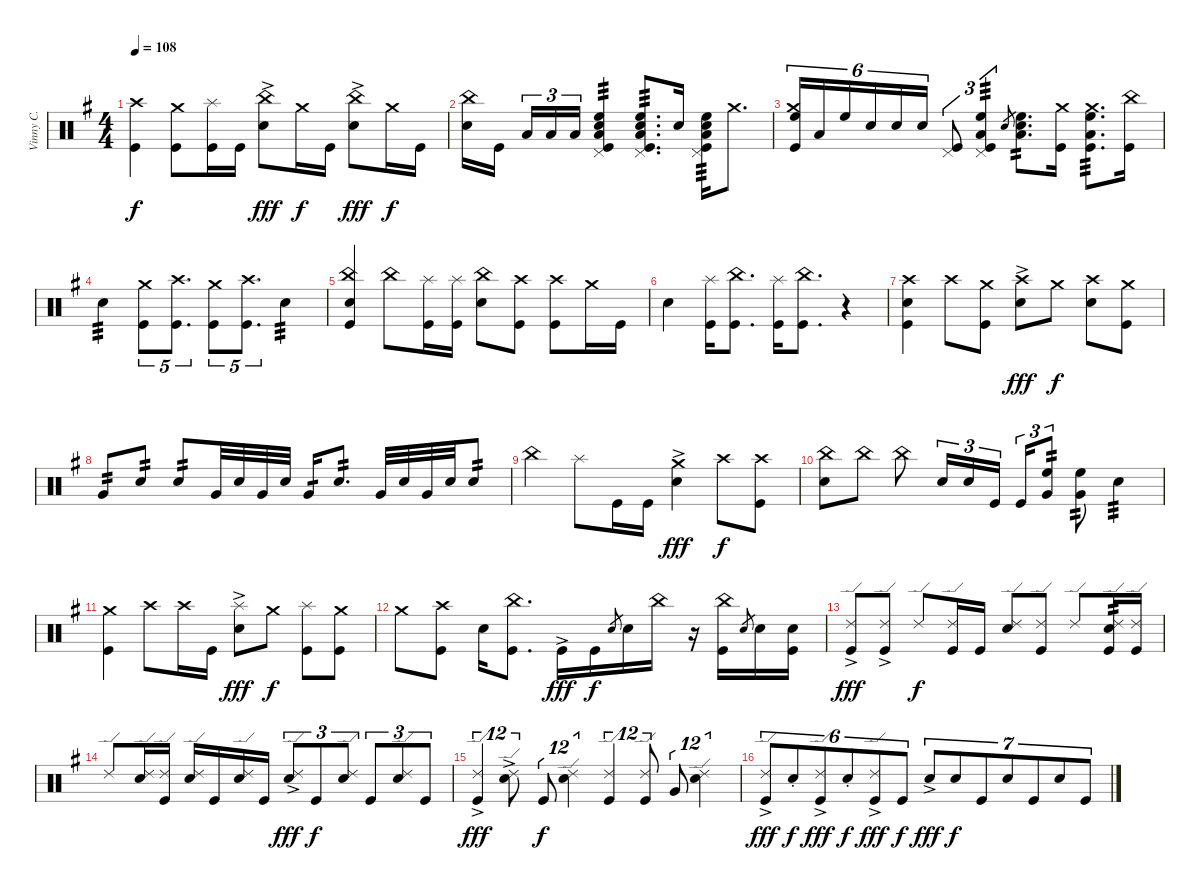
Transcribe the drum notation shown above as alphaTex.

\track ("Vinny C." "Vinny C.") {instrument percussion}
\staff {score}
\articulation defaults
\ts (4 4)
\tempo 108
\clef neutral
\ks g
("Crash high (hit)" "Kick (hit)").4{dy f} ("Crash medium (hit)" "Kick (hit)").8 ("Splash (hit)" "Kick (hit)").16 "Kick (hit)".16 ("China (hit)"{ac} "Electric Snare (hit)").8{dy fff} "Crash medium (hit)".16{dy f} "Kick (hit)".16 ("China (hit)"{ac} "Electric Snare (hit)").8{dy fff} "Crash medium (hit)".16{dy f} "Kick (hit)".16 |
("China (hit)" "Electric Snare (hit)").16 "Kick (hit)".16 "Low Tom (hit)".16{tu (3 2)} "Low Tom (hit)".16{tu (3 2)} "Low Tom (hit)".16{tu (3 2)} ("Pedal Hi-Hat (hit)" "Low Tom (hit)" "High Floor Tom (hit)" "Electric Snare (hit)" "Kick (hit)").4{tp 3} ("Pedal Hi-Hat (hit)" "High Floor Tom (hit)" "Low Tom (hit)" "Electric Snare (hit)" "Kick (hit)").8{d tp 3} "Electric Snare (hit)".16 ("Pedal Hi-Hat (hit)" "High Floor Tom (hit)" "Low Tom (hit)" "Electric Snare (hit)" "Kick (hit)").16{tp 3} "Crash medium (hit)".8{d} |
("Crash medium (hit)" "High Floor Tom (hit)" "Kick (hit)").16{tu (6 4)} "Low Tom (hit)".16{tu (6 4)} "High Floor Tom (hit)".16{tu (6 4)} "Electric Snare (hit)".16{tu (6 4)} "Electric Snare (hit)".16{tu (6 4)} "Electric Snare (hit)".16{tu (6 4)} ("Pedal Hi-Hat (hit)" "Kick (hit)").8{tu (3 2)} ("Pedal Hi-Hat (hit)" "High Floor Tom (hit)" "Low Tom (hit)" "Kick (hit)").4{tu (3 2) tp 3} "Electric Snare (hit)".8{gr} ("High Floor Tom (hit)" "Low Tom (hit)" "Electric Snare (hit)").8{d tp 2} ("Crash medium (hit)" "Kick (hit)").16 ("Crash medium (hit)" "High Floor Tom (hit)" "Low Tom (hit)" "Kick (hit)").8{d tp 3} ("China (hit)" "Kick (hit)").16 |
"Electric Snare (hit)".4{tp 3} ("Crash medium (hit)" "Kick (hit)").8{tu (5 4)} ("Crash high (hit)" "Kick (hit)").8{d tu (5 4)} ("Crash medium (hit)" "Kick (hit)").8{tu (5 4)} ("Crash high (hit)" "Kick (hit)").8{d tu (5 4)} "Electric Snare (hit)".4{tp 3} |
("China (hit)" "Electric Snare (hit)" "Kick (hit)").4 "China (hit)".8 ("Splash (hit)" "Kick (hit)").16 ("Splash (hit)" "Kick (hit)").16 ("China (hit)" "Electric Snare (hit)").8 ("Crash high (hit)" "Kick (hit)").8 ("Crash high (hit)" "Kick (hit)").8 "Crash medium (hit)".16 "Kick (hit)".16 |
"Electric Snare (hit)".4 ("Splash (hit)" "Kick (hit)").16 ("China (hit)" "Kick (hit)").8{d} ("Splash (hit)" "Kick (hit)").16 ("China (hit)" "Kick (hit)").8{d} r.4 |
("Crash high (hit)" "Electric Snare (hit)" "Kick (hit)").4 "Crash high (hit)".8 ("Crash medium (hit)" "Kick (hit)").8 ("Crash high (hit)" "Electric Snare (hit)"{ac}).8{dy fff} "Crash medium (hit)".8{dy f} ("Crash high (hit)" "Electric Snare (hit)").8 ("Crash medium (hit)" "Kick (hit)").8 |
"Very Low Tom (hit)".8{tp 2} "Electric Snare (hit)".8{tp 2} "Electric Snare (hit)".8{tp 2} "Very Low Tom (hit)".32 "Electric Snare (hit)".32 "Very Low Tom (hit)".32 "Electric Snare (hit)".32 "Very Low Tom (hit)".16{tp 1} "Electric Snare (hit)".8{d tp 2} "Very Low Tom (hit)".32 "Electric Snare (hit)".32 "Very Low Tom (hit)".32 "Electric Snare (hit)".32 "Electric Snare (hit)".8{tp 2} |
"China (hit)".4 "Splash (hit)".8 "Kick (hit)".16 "Kick (hit)".16 ("Crash medium (hit)" "Electric Snare (hit)"{ac}).4{dy fff} "Crash high (hit)".8{dy f} ("Crash high (hit)" "Kick (hit)").8 |
("China (hit)" "Electric Snare (hit)").8 "China (hit)".8 "China (hit)".8 "Electric Snare (hit)".16{tu (3 2)} "Electric Snare (hit)".16{tu (3 2)} "Kick (hit)".16{tu (3 2)} "Kick (hit)".16{tu (3 2)} ("High Floor Tom (hit)" "Very Low Tom (hit)").8{tu (3 2) tp 2} ("High Floor Tom (hit)" "Very Low Tom (hit)").8{tp 2} "Electric Snare (hit)".4{tp 3} |
("Crash medium (hit)" "Kick (hit)").4 "Crash high (hit)".8 "Crash high (hit)".16 "Kick (hit)".16 ("Splash (hit)" "Electric Snare (hit)"{ac}).8{dy fff} "Crash medium (hit)".8{dy f} ("Splash (hit)" "Kick (hit)").8 ("Crash medium (hit)" "Kick (hit)").8 |
"Crash medium (hit)".8 ("Crash high (hit)" "Kick (hit)").8 "Electric Snare (hit)".16 ("China (hit)" "Kick (hit)").8{d} "Kick (hit)"{ac}.16{dy fff} "Kick (hit)".16{dy f} "Electric Snare (hit)".8{gr} "Electric Snare (hit)".16 "China (hit)".16 r.16 ("China (hit)" "Kick (hit)").16 "Electric Snare (hit)".8{gr} "Electric Snare (hit)".16 ("Electric Snare (hit)" "Kick (hit)").16 |
("Ride (edge) 2" "Kick (hit)"{ac}).8{dy fff} ("Ride (edge) 2" "Kick (hit)"{ac}).8 "Ride (edge) 2".8{dy f} ("Ride (edge) 2" "Kick (hit)").16 "Kick (hit)".16 ("Ride (edge) 2" "Electric Snare (hit)").8 ("Ride (edge) 2" "Kick (hit)").8 "Ride (edge) 2".8 ("Ride (edge) 2" "Electric Snare (hit)" "Kick (hit)").16{tp 2} ("Ride (edge) 2" "Kick (hit)").16 |
"Ride (edge) 2".8 ("Ride (edge) 2" "Electric Snare (hit)").16 ("Ride (edge) 2" "Kick (hit)").16 ("Ride (edge) 2" "Electric Snare (hit)").16 "Kick (hit)".16 ("Ride (edge) 2" "Electric Snare (hit)").16 "Kick (hit)".16 ("Ride (edge) 2" "Electric Snare (hit)"{ac}).8{tu (3 2) dy fff} "Kick (hit)".8{tu (3 2) dy f} ("Ride (edge) 2" "Electric Snare (hit)").8{tu (3 2)} "Kick (hit)".8{tu (3 2)} ("Ride (edge) 2" "Electric Snare (hit)").8{tu (3 2)} "Kick (hit)".8{tu (3 2)} |
("Ride (edge) 2"{ac} "Kick (hit)").4{tu (12 8) dy fff} ("Ride (edge) 2"{ac} "Electric Snare (hit)").8{tu (12 8)} "Kick (hit)".8{tu (12 8) dy f} ("Ride (edge) 2" "Electric Snare (hit)").4{tu (12 8)} ("Ride (edge) 2" "Kick (hit)").4{tu (12 8)} ("Ride (edge) 2" "Kick (hit)").8{tu (12 8)} "Very Low Tom (hit)".8{tu (12 8)} ("Ride (edge) 2" "Electric Snare (hit)").4{tu (12 8)} |
("Ride (edge) 2"{ac} "Kick (hit)").8{tu (6 4) dy fff} "Electric Snare (hit)"{st}.8{tu (6 4) dy f} ("Ride (edge) 2"{ac} "Kick (hit)").8{tu (6 4) dy fff} "Electric Snare (hit)"{st}.8{tu (6 4) dy f} ("Ride (edge) 2"{ac} "Kick (hit)").8{tu (6 4) dy fff} "Kick (hit)".8{tu (6 4) dy f} "Electric Snare (hit)"{ac}.8{tu (7 4) dy fff} "Electric Snare (hit)".8{tu (7 4) dy f} "Kick (hit)".8{tu (7 4)} "Electric Snare (hit)".8{tu (7 4)} "Kick (hit)".8{tu (7 4)} "Electric Snare (hit)".8{tu (7 4)} "Kick (hit)".8{tu (7 4)}
